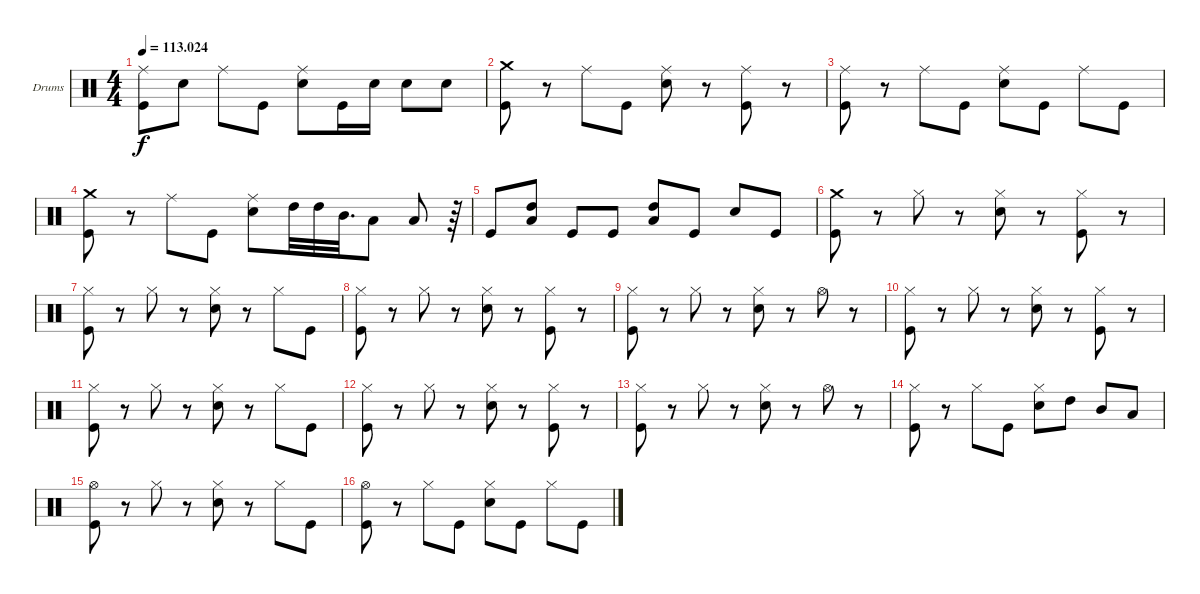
\bracketExtendMode groupsimilarinstruments
\firstSystemTrackNameOrientation horizontal
\otherSystemsTrackNameOrientation horizontal
\track ("Ударные (Кривенков Д)" "Drums") {instrument percussion}
\staff {score}
\articulation defaults
\ts (4 4)
\tempo
113.024
\accidentals auto
\clef neutral
\ottava regular
\simile none
\ks c
("Ride (middle)" "Kick (hit)").8{dy f} "Snare (hit) 2".8 "Ride (middle)".8 "Kick (hit)".8 ("Ride (middle)" "Snare (hit) 2").8 "Kick (hit)".16 "Snare (hit) 2".16 "Snare (hit) 2".8 "Snare (hit) 2".8 |
("Crash medium (hit)" "Kick (hit)").8 r.8 "Ride (middle)".8 "Kick (hit)".8 ("Ride (middle)" "Snare (hit) 2").8 r.8 ("Ride (middle)" "Kick (hit)").8 r.8 |
("Ride (middle)" "Kick (hit)").8 r.8 "Ride (middle)".8 "Kick (hit)".8 ("Ride (middle)" "Snare (hit) 2").8 "Kick (hit)".8 "Ride (middle)".8 "Kick (hit)".8 |
("Crash medium (hit)" "Kick (hit)").8 r.8 "Ride (middle)".8 "Kick (hit)".8 ("Ride (middle)" "Snare (hit) 2").8 "High Tom (hit)".32 "High Tom (hit)".32 "Mid Tom (hit)".32{d} "Low Tom (hit)".8 "Low Tom (hit)".8 r.64 |
"Kick (hit)".8 ("High Tom (hit)" "Low Tom (hit)").8 "Kick (hit)".8 "Kick (hit)".8 ("High Tom (hit)" "Low Tom (hit)").8 "Kick (hit)".8 "Snare (hit) 2".8 "Kick (hit)".8 |
("Crash medium (hit)" "Kick (hit)").8 r.8 "Hi-Hat (closed)".8 r.8 ("Hi-Hat (closed)" "Snare (hit) 2").8 r.8 ("Hi-Hat (closed)" "Kick (hit)").8 r.8 |
("Hi-Hat (closed)" "Kick (hit)").8 r.8 "Hi-Hat (closed)".8 r.8 ("Hi-Hat (closed)" "Snare (hit) 2").8 r.8 "Hi-Hat (closed)".8 "Kick (hit)".8 |
("Hi-Hat (closed)" "Kick (hit)").8 r.8 "Hi-Hat (closed)".8 r.8 ("Hi-Hat (closed)" "Snare (hit) 2").8 r.8 ("Hi-Hat (closed)" "Kick (hit)").8 r.8 |
("Hi-Hat (closed)" "Kick (hit)").8 r.8 "Hi-Hat (closed)".8 r.8 ("Hi-Hat (closed)" "Snare (hit) 2").8 r.8 "Hi-Hat (open)".8 r.8 |
("Hi-Hat (closed)" "Kick (hit)").8 r.8 "Hi-Hat (closed)".8 r.8 ("Hi-Hat (closed)" "Snare (hit) 2").8 r.8 ("Hi-Hat (closed)" "Kick (hit)").8 r.8 |
("Hi-Hat (closed)" "Kick (hit)").8 r.8 "Hi-Hat (closed)".8 r.8 ("Hi-Hat (closed)" "Snare (hit) 2").8 r.8 "Hi-Hat (closed)".8 "Kick (hit)".8 |
("Hi-Hat (closed)" "Kick (hit)").8 r.8 "Hi-Hat (closed)".8 r.8 ("Hi-Hat (closed)" "Snare (hit) 2").8 r.8 ("Hi-Hat (closed)" "Kick (hit)").8 r.8 |
("Hi-Hat (closed)" "Kick (hit)").8 r.8 "Hi-Hat (closed)".8 r.8 ("Hi-Hat (closed)" "Snare (hit) 2").8 r.8 "Hi-Hat (open)".8 r.8 |
("Hi-Hat (closed)" "Kick (hit)").8 r.8 "Hi-Hat (closed)".8 "Kick (hit)".8 ("Hi-Hat (closed)" "Snare (hit) 2").8 "High Tom (hit)".8 "Mid Tom (hit)".8 "Low Tom (hit)".8 |
("Hi-Hat (open)" "Kick (hit)").8 r.8 "Hi-Hat (closed)".8 r.8 ("Hi-Hat (closed)" "Snare (hit) 2").8 r.8 "Hi-Hat (closed)".8 "Kick (hit)".8 |
("Hi-Hat (open)" "Kick (hit)").8 r.8 "Hi-Hat (closed)".8 "Kick (hit)".8 ("Hi-Hat (closed)" "Snare (hit) 2").8 "Kick (hit)".8 "Hi-Hat (closed)".8 "Kick (hit)".8
